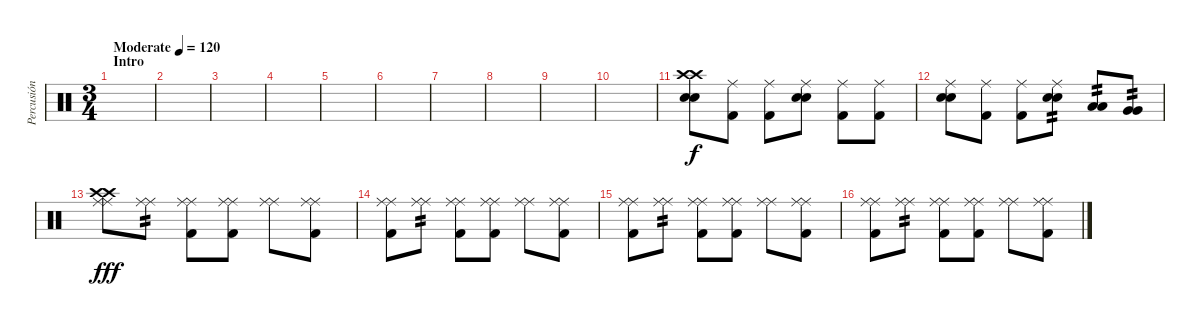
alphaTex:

\track ("Percusión" "Percusión") {instrument percussion}
\staff {score}
\articulation defaults
\ts (3 4)
\section ("" "Intro")
\tempo (120 "Moderate")
\clef neutral
\ks c
|
|
|
|
|
|
|
|
|
|
("Crash high (hit)" "Crash high (hit)" "Electric Snare (hit)" "Electric Snare (hit)").8 ("Ride (middle)" "Kick (hit) 2").8 ("Ride (middle)" "Kick (hit) 2").8 ("Ride (middle)" "Electric Snare (hit)" "Electric Snare (hit)").8 ("Ride (middle)" "Kick (hit) 2").8 ("Ride (middle)" "Kick (hit) 2").8 |
("Ride (middle)" "Electric Snare (hit)" "Electric Snare (hit)").8 ("Ride (middle)" "Kick (hit) 2").8 ("Ride (middle)" "Kick (hit) 2").8 ("Ride (middle)" "Electric Snare (hit)" "Electric Snare (hit)").8{tp 2} ("Low Tom (hit)" "Low Tom (hit)").8{tp 2} ("Very Low Tom (hit)" "Very Low Tom (hit)").8{tp 2 dy f} |
("Ride (middle)" "Ride (middle)" "Crash high (hit)" "Crash high (hit)").8{dy fff} ("Ride (middle)" "Ride (middle)").8{tp 2} ("Ride (middle)" "Ride (middle)" "Kick (hit) 2").8 ("Ride (middle)" "Ride (middle)" "Kick (hit) 2").8 ("Ride (middle)" "Ride (middle)").8 ("Ride (middle)" "Ride (middle)" "Kick (hit) 2").8 |
("Ride (middle)" "Ride (middle)" "Kick (hit) 2").8 ("Ride (middle)" "Ride (middle)").8{tp 2} ("Ride (middle)" "Ride (middle)" "Kick (hit) 2").8 ("Ride (middle)" "Ride (middle)" "Kick (hit) 2").8 ("Ride (middle)" "Ride (middle)").8 ("Ride (middle)" "Ride (middle)" "Kick (hit) 2").8 |
("Ride (middle)" "Ride (middle)" "Kick (hit) 2").8 ("Ride (middle)" "Ride (middle)").8{tp 2} ("Ride (middle)" "Ride (middle)" "Kick (hit) 2").8 ("Ride (middle)" "Ride (middle)" "Kick (hit) 2").8 ("Ride (middle)" "Ride (middle)").8 ("Ride (middle)" "Ride (middle)" "Kick (hit) 2").8 |
("Ride (middle)" "Ride (middle)" "Kick (hit) 2").8 ("Ride (middle)" "Ride (middle)").8{tp 2} ("Ride (middle)" "Ride (middle)" "Kick (hit) 2").8 ("Ride (middle)" "Ride (middle)" "Kick (hit) 2").8 ("Ride (middle)" "Ride (middle)").8 ("Ride (middle)" "Ride (middle)" "Kick (hit) 2").8
